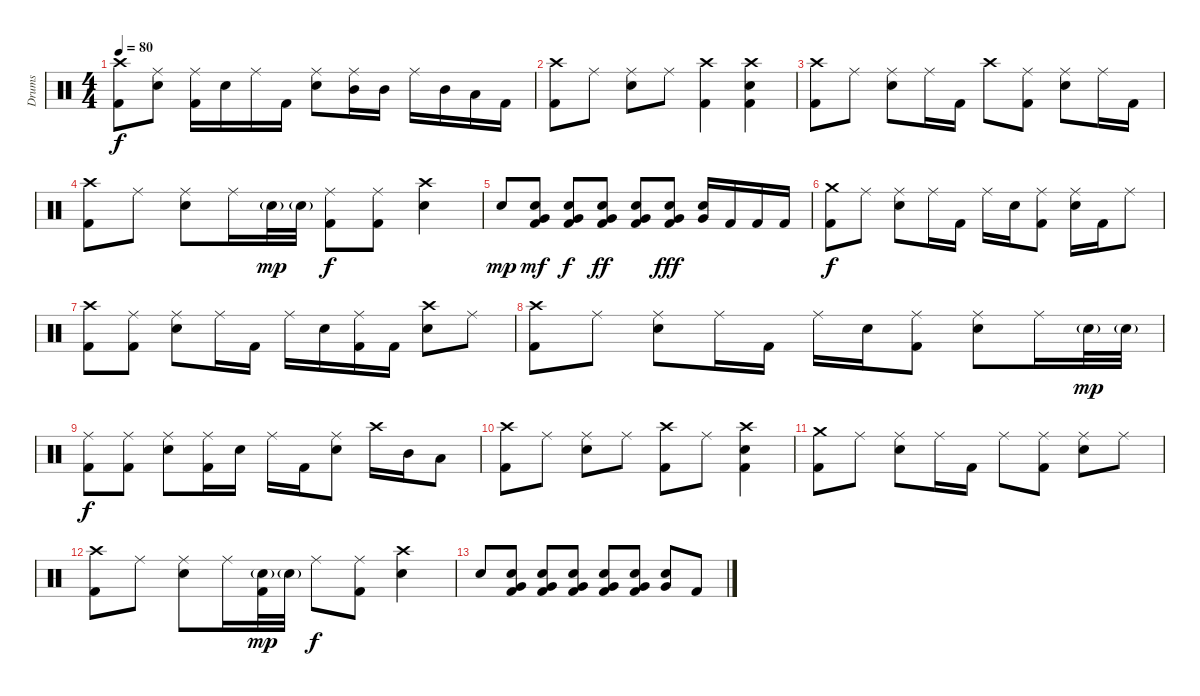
\track ("Drums" "Drums") {instrument percussion}
\staff {score}
\articulation defaults
\ts (4 4)
\tempo 80
\clef neutral
\ks c
("Crash high (hit)" "Kick (hit) 2").8{dy f} ("Ride (middle)" "Electric Snare (hit)").8 ("Ride (middle)" "Kick (hit) 2").16 "Electric Snare (hit)".16 "Ride (middle)".16 "Kick (hit) 2".16 ("Ride (middle)" "Electric Snare (hit)").8 ("Ride (middle)" "Mid Tom (hit)").16 "Mid Tom (hit)".16 "Ride (middle)".16 "Mid Tom (hit)".16 "Low Tom (hit)".16 "Kick (hit) 2".16 |
("Crash high (hit)" "Kick (hit) 2").8 "Ride (middle)".8 ("Ride (middle)" "Electric Snare (hit)").8 "Ride (middle)".8 ("Crash high (hit)" "Kick (hit) 2").4 ("Crash high (hit)" "Electric Snare (hit)" "Kick (hit) 2").4 |
("Crash high (hit)" "Kick (hit) 2").8 "Ride (middle)".8 ("Ride (middle)" "Electric Snare (hit)").8 "Ride (middle)".16 "Kick (hit) 2".16 "Crash high (hit)".8 ("Ride (middle)" "Kick (hit) 2").8 ("Ride (middle)" "Electric Snare (hit)").8 "Ride (middle)".16 "Kick (hit) 2".16 |
("Crash high (hit)" "Kick (hit) 2").8 "Ride (middle)".8 ("Ride (middle)" "Electric Snare (hit)").8 "Ride (middle)".16 "Electric Snare (hit)"{g}.32{dy mp} "Electric Snare (hit)"{g}.32 ("Ride (middle)" "Kick (hit) 2").8{dy f} ("Ride (middle)" "Kick (hit) 2").8 ("Crash high (hit)" "Electric Snare (hit)").4 |
"Electric Snare (hit)".8{dy mp} ("Electric Snare (hit)" "Very Low Tom (hit)" "Kick (hit) 2").8{dy mf} ("Electric Snare (hit)" "Very Low Tom (hit)" "Kick (hit) 2").8{dy f} ("Electric Snare (hit)" "Very Low Tom (hit)" "Kick (hit) 2").8{dy ff} ("Electric Snare (hit)" "Very Low Tom (hit)" "Kick (hit) 2").8 ("Electric Snare (hit)" "Very Low Tom (hit)" "Kick (hit) 2").8{dy fff} ("Electric Snare (hit)" "Very Low Tom (hit)").16 "Kick (hit) 2".16 "Kick (hit) 2".16 "Kick (hit) 2".16 |
("Crash medium (hit)" "Kick (hit) 2").8{dy f volume 10} "Ride (middle)".8 ("Ride (middle)" "Electric Snare (hit)").8 "Ride (middle)".16 "Kick (hit) 2".16 "Ride (middle)".16 "Electric Snare (hit)".16 ("Ride (middle)" "Kick (hit) 2").8 ("Ride (middle)" "Electric Snare (hit)").16 "Kick (hit) 2".16 "Ride (middle)".8 |
("Crash high (hit)" "Kick (hit) 2").8 ("Ride (middle)" "Kick (hit) 2").8 ("Ride (middle)" "Electric Snare (hit)").8 "Ride (middle)".16 "Kick (hit) 2".16 "Ride (middle)".16 "Electric Snare (hit)".16 ("Ride (middle)" "Kick (hit) 2").16 "Kick (hit) 2".16 ("Crash high (hit)" "Electric Snare (hit)").8 "Ride (middle)".8 |
("Crash high (hit)" "Kick (hit) 2").8{volume 6} "Ride (middle)".8 ("Ride (middle)" "Electric Snare (hit)").8 "Ride (middle)".16 "Kick (hit) 2".16 "Ride (middle)".16 "Electric Snare (hit)".16 ("Ride (middle)" "Kick (hit) 2").8 ("Ride (middle)" "Electric Snare (hit)").8 "Ride (middle)".16 "Electric Snare (hit)"{g}.32{dy mp} "Electric Snare (hit)"{g}.32 |
("Ride (middle)" "Kick (hit) 2").8{dy f} ("Ride (middle)" "Kick (hit) 2").8 ("Ride (middle)" "Electric Snare (hit)").8 ("Ride (middle)" "Kick (hit) 2").16 "Electric Snare (hit)".16 "Ride (middle)".16 "Kick (hit) 2".16 ("Ride (middle)" "Electric Snare (hit)").8 "Crash high (hit)".16 "Mid Tom (hit)".16 "Low Tom (hit)".8 |
("Crash high (hit)" "Kick (hit) 2").8{volume 3} "Ride (middle)".8 ("Ride (middle)" "Electric Snare (hit)").8 "Ride (middle)".8 ("Crash high (hit)" "Kick (hit) 2").8 "Ride (middle)".8 ("Crash high (hit)" "Electric Snare (hit)" "Kick (hit) 2").4 |
("Crash medium (hit)" "Kick (hit) 2").8 "Ride (middle)".8 ("Ride (middle)" "Electric Snare (hit)").8 "Ride (middle)".16 "Kick (hit) 2".16 "Ride (middle)".8 ("Ride (middle)" "Kick (hit) 2").8 ("Ride (middle)" "Electric Snare (hit)").8 "Ride (middle)".8 |
("Crash high (hit)" "Kick (hit) 2").8{volume 0} "Ride (middle)".8 ("Ride (middle)" "Electric Snare (hit)").8 "Ride (middle)".16 ("Electric Snare (hit)"{g} "Kick (hit) 2").32{dy mp} "Electric Snare (hit)"{g}.32 "Ride (middle)".8{dy f} ("Ride (middle)" "Kick (hit) 2").8 ("Crash high (hit)" "Electric Snare (hit)").4 |
"Electric Snare (hit)".8 ("Electric Snare (hit)" "Very Low Tom (hit)" "Kick (hit) 2").8 ("Electric Snare (hit)" "Very Low Tom (hit)" "Kick (hit) 2").8 ("Electric Snare (hit)" "Very Low Tom (hit)" "Kick (hit) 2").8 ("Electric Snare (hit)" "Very Low Tom (hit)" "Kick (hit) 2").8 ("Electric Snare (hit)" "Very Low Tom (hit)" "Kick (hit) 2").8 ("Electric Snare (hit)" "Very Low Tom (hit)").8 "Kick (hit) 2".8
